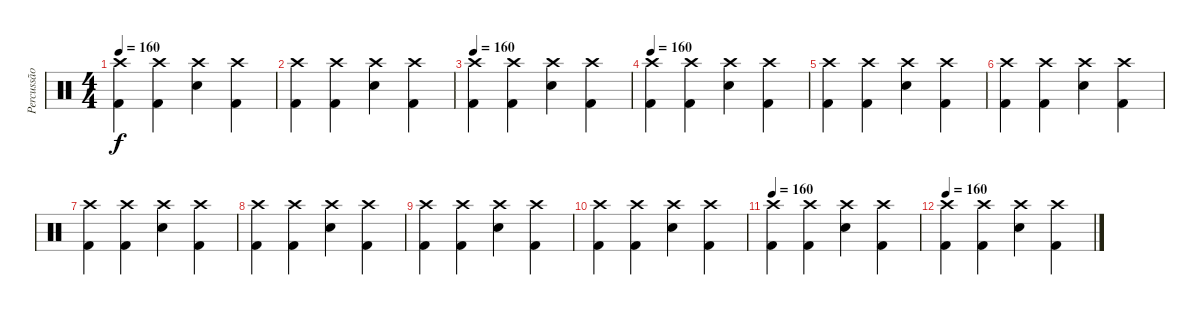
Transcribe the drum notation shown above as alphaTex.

\track ("Percussão" "Percussão") {instrument percussion}
\staff {score}
\articulation defaults
\ts (4 4)
\tempo 160
\clef neutral
\ks c
("Crash high (hit)" "Kick (hit) 2").4{dy f} ("Crash high (hit)" "Kick (hit) 2").4 ("Crash high (hit)" "Electric Snare (hit)").4 ("Crash high (hit)" "Kick (hit) 2").4 |
("Crash high (hit)" "Kick (hit) 2").4 ("Crash high (hit)" "Kick (hit) 2").4 ("Crash high (hit)" "Electric Snare (hit)").4 ("Crash high (hit)" "Kick (hit) 2").4 |
\tempo 160
("Crash high (hit)" "Kick (hit) 2").4 ("Crash high (hit)" "Kick (hit) 2").4 ("Crash high (hit)" "Electric Snare (hit)").4 ("Crash high (hit)" "Kick (hit) 2").4 |
\tempo 160
("Crash high (hit)" "Kick (hit) 2").4 ("Crash high (hit)" "Kick (hit) 2").4 ("Crash high (hit)" "Electric Snare (hit)").4 ("Crash high (hit)" "Kick (hit) 2").4 |
("Crash high (hit)" "Kick (hit) 2").4 ("Crash high (hit)" "Kick (hit) 2").4 ("Crash high (hit)" "Electric Snare (hit)").4 ("Crash high (hit)" "Kick (hit) 2").4 |
("Crash high (hit)" "Kick (hit) 2").4 ("Crash high (hit)" "Kick (hit) 2").4 ("Crash high (hit)" "Electric Snare (hit)").4 ("Crash high (hit)" "Kick (hit) 2").4 |
("Crash high (hit)" "Kick (hit) 2").4 ("Crash high (hit)" "Kick (hit) 2").4 ("Crash high (hit)" "Electric Snare (hit)").4 ("Crash high (hit)" "Kick (hit) 2").4 |
("Crash high (hit)" "Kick (hit) 2").4 ("Crash high (hit)" "Kick (hit) 2").4 ("Crash high (hit)" "Electric Snare (hit)").4 ("Crash high (hit)" "Kick (hit) 2").4 |
("Crash high (hit)" "Kick (hit) 2").4 ("Crash high (hit)" "Kick (hit) 2").4 ("Crash high (hit)" "Electric Snare (hit)").4 ("Crash high (hit)" "Kick (hit) 2").4 |
("Crash high (hit)" "Kick (hit) 2").4 ("Crash high (hit)" "Kick (hit) 2").4 ("Crash high (hit)" "Electric Snare (hit)").4 ("Crash high (hit)" "Kick (hit) 2").4 |
\tempo 160
("Crash high (hit)" "Kick (hit) 2").4 ("Crash high (hit)" "Kick (hit) 2").4 ("Crash high (hit)" "Electric Snare (hit)").4 ("Crash high (hit)" "Kick (hit) 2").4 |
\tempo 160
("Crash high (hit)" "Kick (hit) 2").4 ("Crash high (hit)" "Kick (hit) 2").4 ("Crash high (hit)" "Electric Snare (hit)").4 ("Crash high (hit)" "Kick (hit) 2").4
